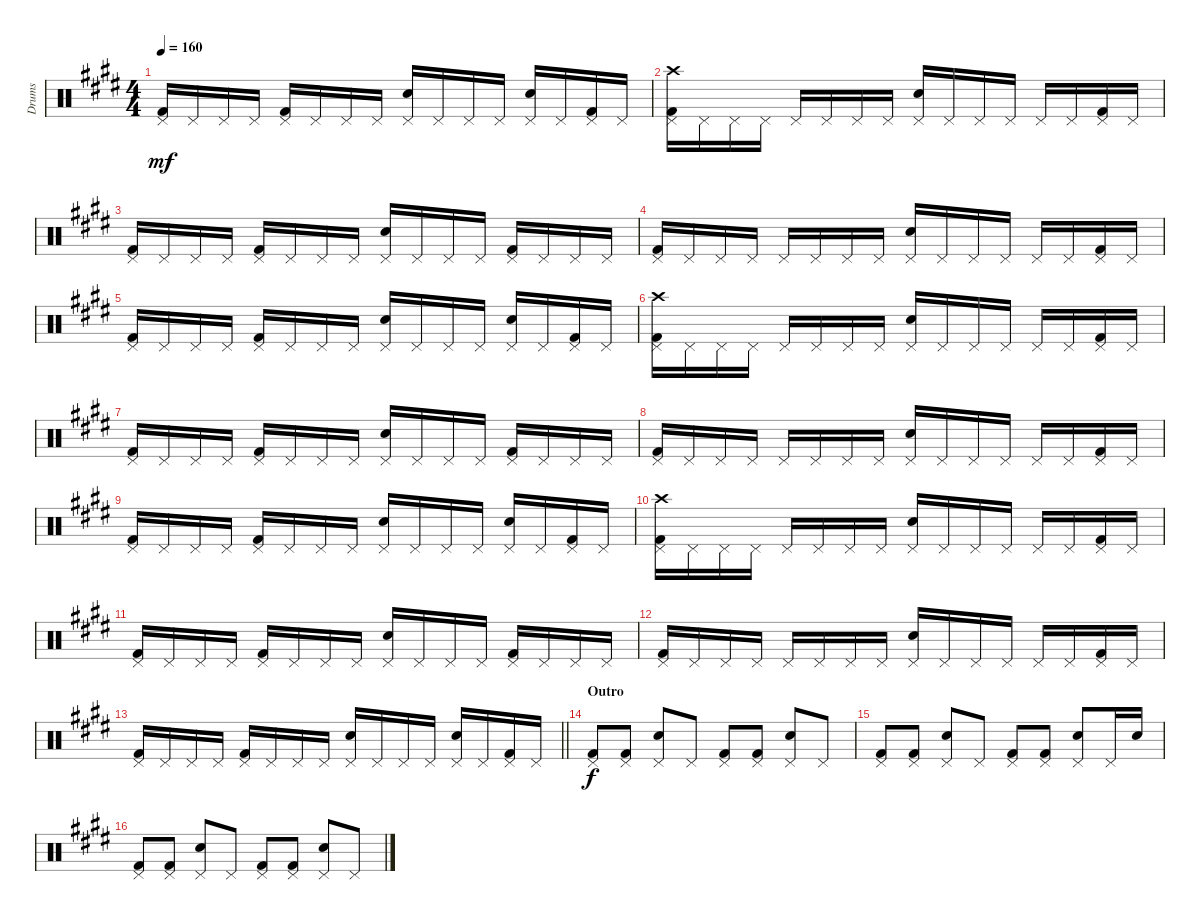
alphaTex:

\track ("Drums" "Drums") {instrument percussion}
\staff {score}
\articulation defaults
\ts (4 4)
\tempo 160
\clef neutral
\ks e
("Pedal Hi-Hat (hit)" "Kick (hit) 2").16{dy mf} "Pedal Hi-Hat (hit)".16 "Pedal Hi-Hat (hit)".16 "Pedal Hi-Hat (hit)".16 ("Pedal Hi-Hat (hit)" "Kick (hit) 2").16 "Pedal Hi-Hat (hit)".16 "Pedal Hi-Hat (hit)".16 "Pedal Hi-Hat (hit)".16 ("Pedal Hi-Hat (hit)" "Snare (hit) 2").16 "Pedal Hi-Hat (hit)".16 "Pedal Hi-Hat (hit)".16 "Pedal Hi-Hat (hit)".16 ("Pedal Hi-Hat (hit)" "Snare (hit) 2").16 "Pedal Hi-Hat (hit)".16 ("Pedal Hi-Hat (hit)" "Kick (hit) 2").16 "Pedal Hi-Hat (hit)".16 |
("Pedal Hi-Hat (hit)" "Crash high (hit)" "Kick (hit) 2").16 "Pedal Hi-Hat (hit)".16 "Pedal Hi-Hat (hit)".16 "Pedal Hi-Hat (hit)".16 "Pedal Hi-Hat (hit)".16 "Pedal Hi-Hat (hit)".16 "Pedal Hi-Hat (hit)".16 "Pedal Hi-Hat (hit)".16 ("Pedal Hi-Hat (hit)" "Snare (hit) 2").16 "Pedal Hi-Hat (hit)".16 "Pedal Hi-Hat (hit)".16 "Pedal Hi-Hat (hit)".16 "Pedal Hi-Hat (hit)".16 "Pedal Hi-Hat (hit)".16 ("Pedal Hi-Hat (hit)" "Kick (hit) 2").16 "Pedal Hi-Hat (hit)".16 |
("Pedal Hi-Hat (hit)" "Kick (hit) 2").16 "Pedal Hi-Hat (hit)".16 "Pedal Hi-Hat (hit)".16 "Pedal Hi-Hat (hit)".16 ("Pedal Hi-Hat (hit)" "Kick (hit) 2").16 "Pedal Hi-Hat (hit)".16 "Pedal Hi-Hat (hit)".16 "Pedal Hi-Hat (hit)".16 ("Pedal Hi-Hat (hit)" "Snare (hit) 2").16 "Pedal Hi-Hat (hit)".16 "Pedal Hi-Hat (hit)".16 "Pedal Hi-Hat (hit)".16 ("Pedal Hi-Hat (hit)" "Kick (hit) 2").16 "Pedal Hi-Hat (hit)".16 "Pedal Hi-Hat (hit)".16 "Pedal Hi-Hat (hit)".16 |
("Pedal Hi-Hat (hit)" "Kick (hit) 2").16 "Pedal Hi-Hat (hit)".16 "Pedal Hi-Hat (hit)".16 "Pedal Hi-Hat (hit)".16 "Pedal Hi-Hat (hit)".16 "Pedal Hi-Hat (hit)".16 "Pedal Hi-Hat (hit)".16 "Pedal Hi-Hat (hit)".16 ("Pedal Hi-Hat (hit)" "Snare (hit) 2").16 "Pedal Hi-Hat (hit)".16 "Pedal Hi-Hat (hit)".16 "Pedal Hi-Hat (hit)".16 "Pedal Hi-Hat (hit)".16 "Pedal Hi-Hat (hit)".16 ("Pedal Hi-Hat (hit)" "Kick (hit) 2").16 "Pedal Hi-Hat (hit)".16 |
("Pedal Hi-Hat (hit)" "Kick (hit) 2").16 "Pedal Hi-Hat (hit)".16 "Pedal Hi-Hat (hit)".16 "Pedal Hi-Hat (hit)".16 ("Pedal Hi-Hat (hit)" "Kick (hit) 2").16 "Pedal Hi-Hat (hit)".16 "Pedal Hi-Hat (hit)".16 "Pedal Hi-Hat (hit)".16 ("Pedal Hi-Hat (hit)" "Snare (hit) 2").16 "Pedal Hi-Hat (hit)".16 "Pedal Hi-Hat (hit)".16 "Pedal Hi-Hat (hit)".16 ("Pedal Hi-Hat (hit)" "Snare (hit) 2").16 "Pedal Hi-Hat (hit)".16 ("Pedal Hi-Hat (hit)" "Kick (hit) 2").16 "Pedal Hi-Hat (hit)".16 |
("Pedal Hi-Hat (hit)" "Crash high (hit)" "Kick (hit) 2").16 "Pedal Hi-Hat (hit)".16 "Pedal Hi-Hat (hit)".16 "Pedal Hi-Hat (hit)".16 "Pedal Hi-Hat (hit)".16 "Pedal Hi-Hat (hit)".16 "Pedal Hi-Hat (hit)".16 "Pedal Hi-Hat (hit)".16 ("Pedal Hi-Hat (hit)" "Snare (hit) 2").16 "Pedal Hi-Hat (hit)".16 "Pedal Hi-Hat (hit)".16 "Pedal Hi-Hat (hit)".16 "Pedal Hi-Hat (hit)".16 "Pedal Hi-Hat (hit)".16 ("Pedal Hi-Hat (hit)" "Kick (hit) 2").16 "Pedal Hi-Hat (hit)".16 |
("Pedal Hi-Hat (hit)" "Kick (hit) 2").16 "Pedal Hi-Hat (hit)".16 "Pedal Hi-Hat (hit)".16 "Pedal Hi-Hat (hit)".16 ("Pedal Hi-Hat (hit)" "Kick (hit) 2").16 "Pedal Hi-Hat (hit)".16 "Pedal Hi-Hat (hit)".16 "Pedal Hi-Hat (hit)".16 ("Pedal Hi-Hat (hit)" "Snare (hit) 2").16 "Pedal Hi-Hat (hit)".16 "Pedal Hi-Hat (hit)".16 "Pedal Hi-Hat (hit)".16 ("Pedal Hi-Hat (hit)" "Kick (hit) 2").16 "Pedal Hi-Hat (hit)".16 "Pedal Hi-Hat (hit)".16 "Pedal Hi-Hat (hit)".16 |
("Pedal Hi-Hat (hit)" "Kick (hit) 2").16 "Pedal Hi-Hat (hit)".16 "Pedal Hi-Hat (hit)".16 "Pedal Hi-Hat (hit)".16 "Pedal Hi-Hat (hit)".16 "Pedal Hi-Hat (hit)".16 "Pedal Hi-Hat (hit)".16 "Pedal Hi-Hat (hit)".16 ("Pedal Hi-Hat (hit)" "Snare (hit) 2").16 "Pedal Hi-Hat (hit)".16 "Pedal Hi-Hat (hit)".16 "Pedal Hi-Hat (hit)".16 "Pedal Hi-Hat (hit)".16 "Pedal Hi-Hat (hit)".16 ("Pedal Hi-Hat (hit)" "Kick (hit) 2").16 "Pedal Hi-Hat (hit)".16 |
("Pedal Hi-Hat (hit)" "Kick (hit) 2").16 "Pedal Hi-Hat (hit)".16 "Pedal Hi-Hat (hit)".16 "Pedal Hi-Hat (hit)".16 ("Pedal Hi-Hat (hit)" "Kick (hit) 2").16 "Pedal Hi-Hat (hit)".16 "Pedal Hi-Hat (hit)".16 "Pedal Hi-Hat (hit)".16 ("Pedal Hi-Hat (hit)" "Snare (hit) 2").16 "Pedal Hi-Hat (hit)".16 "Pedal Hi-Hat (hit)".16 "Pedal Hi-Hat (hit)".16 ("Pedal Hi-Hat (hit)" "Snare (hit) 2").16 "Pedal Hi-Hat (hit)".16 ("Pedal Hi-Hat (hit)" "Kick (hit) 2").16 "Pedal Hi-Hat (hit)".16 |
("Pedal Hi-Hat (hit)" "Crash high (hit)" "Kick (hit) 2").16 "Pedal Hi-Hat (hit)".16 "Pedal Hi-Hat (hit)".16 "Pedal Hi-Hat (hit)".16 "Pedal Hi-Hat (hit)".16 "Pedal Hi-Hat (hit)".16 "Pedal Hi-Hat (hit)".16 "Pedal Hi-Hat (hit)".16 ("Pedal Hi-Hat (hit)" "Snare (hit) 2").16 "Pedal Hi-Hat (hit)".16 "Pedal Hi-Hat (hit)".16 "Pedal Hi-Hat (hit)".16 "Pedal Hi-Hat (hit)".16 "Pedal Hi-Hat (hit)".16 ("Pedal Hi-Hat (hit)" "Kick (hit) 2").16 "Pedal Hi-Hat (hit)".16 |
("Pedal Hi-Hat (hit)" "Kick (hit) 2").16 "Pedal Hi-Hat (hit)".16 "Pedal Hi-Hat (hit)".16 "Pedal Hi-Hat (hit)".16 ("Pedal Hi-Hat (hit)" "Kick (hit) 2").16 "Pedal Hi-Hat (hit)".16 "Pedal Hi-Hat (hit)".16 "Pedal Hi-Hat (hit)".16 ("Pedal Hi-Hat (hit)" "Snare (hit) 2").16 "Pedal Hi-Hat (hit)".16 "Pedal Hi-Hat (hit)".16 "Pedal Hi-Hat (hit)".16 ("Pedal Hi-Hat (hit)" "Kick (hit) 2").16 "Pedal Hi-Hat (hit)".16 "Pedal Hi-Hat (hit)".16 "Pedal Hi-Hat (hit)".16 |
("Pedal Hi-Hat (hit)" "Kick (hit) 2").16 "Pedal Hi-Hat (hit)".16 "Pedal Hi-Hat (hit)".16 "Pedal Hi-Hat (hit)".16 "Pedal Hi-Hat (hit)".16 "Pedal Hi-Hat (hit)".16 "Pedal Hi-Hat (hit)".16 "Pedal Hi-Hat (hit)".16 ("Pedal Hi-Hat (hit)" "Snare (hit) 2").16 "Pedal Hi-Hat (hit)".16 "Pedal Hi-Hat (hit)".16 "Pedal Hi-Hat (hit)".16 "Pedal Hi-Hat (hit)".16 "Pedal Hi-Hat (hit)".16 ("Pedal Hi-Hat (hit)" "Kick (hit) 2").16 "Pedal Hi-Hat (hit)".16 |
\barLineRight lightlight
("Pedal Hi-Hat (hit)" "Kick (hit) 2").16 "Pedal Hi-Hat (hit)".16 "Pedal Hi-Hat (hit)".16 "Pedal Hi-Hat (hit)".16 ("Pedal Hi-Hat (hit)" "Kick (hit) 2").16 "Pedal Hi-Hat (hit)".16 "Pedal Hi-Hat (hit)".16 "Pedal Hi-Hat (hit)".16 ("Pedal Hi-Hat (hit)" "Snare (hit) 2").16 "Pedal Hi-Hat (hit)".16 "Pedal Hi-Hat (hit)".16 "Pedal Hi-Hat (hit)".16 ("Pedal Hi-Hat (hit)" "Snare (hit) 2").16 "Pedal Hi-Hat (hit)".16 ("Pedal Hi-Hat (hit)" "Kick (hit) 2").16 "Pedal Hi-Hat (hit)".16 |
\section ("" "Outro")
("Pedal Hi-Hat (hit)" "Kick (hit) 2").8{dy f} ("Pedal Hi-Hat (hit)" "Kick (hit) 2").8 ("Pedal Hi-Hat (hit)" "Snare (hit) 2").8 "Pedal Hi-Hat (hit)".8 ("Pedal Hi-Hat (hit)" "Kick (hit) 2").8 ("Pedal Hi-Hat (hit)" "Kick (hit) 2").8 ("Pedal Hi-Hat (hit)" "Snare (hit) 2").8 "Pedal Hi-Hat (hit)".8 |
("Pedal Hi-Hat (hit)" "Kick (hit) 2").8 ("Pedal Hi-Hat (hit)" "Kick (hit) 2").8 ("Pedal Hi-Hat (hit)" "Snare (hit) 2").8 "Pedal Hi-Hat (hit)".8 ("Pedal Hi-Hat (hit)" "Kick (hit) 2").8 ("Pedal Hi-Hat (hit)" "Kick (hit) 2").8 ("Pedal Hi-Hat (hit)" "Snare (hit) 2").8 "Pedal Hi-Hat (hit)".16 "Snare (hit) 2".16 |
("Pedal Hi-Hat (hit)" "Kick (hit) 2").8 ("Pedal Hi-Hat (hit)" "Kick (hit) 2").8 ("Pedal Hi-Hat (hit)" "Snare (hit) 2").8 "Pedal Hi-Hat (hit)".8 ("Pedal Hi-Hat (hit)" "Kick (hit) 2").8 ("Pedal Hi-Hat (hit)" "Kick (hit) 2").8 ("Pedal Hi-Hat (hit)" "Snare (hit) 2").8 "Pedal Hi-Hat (hit)".8
